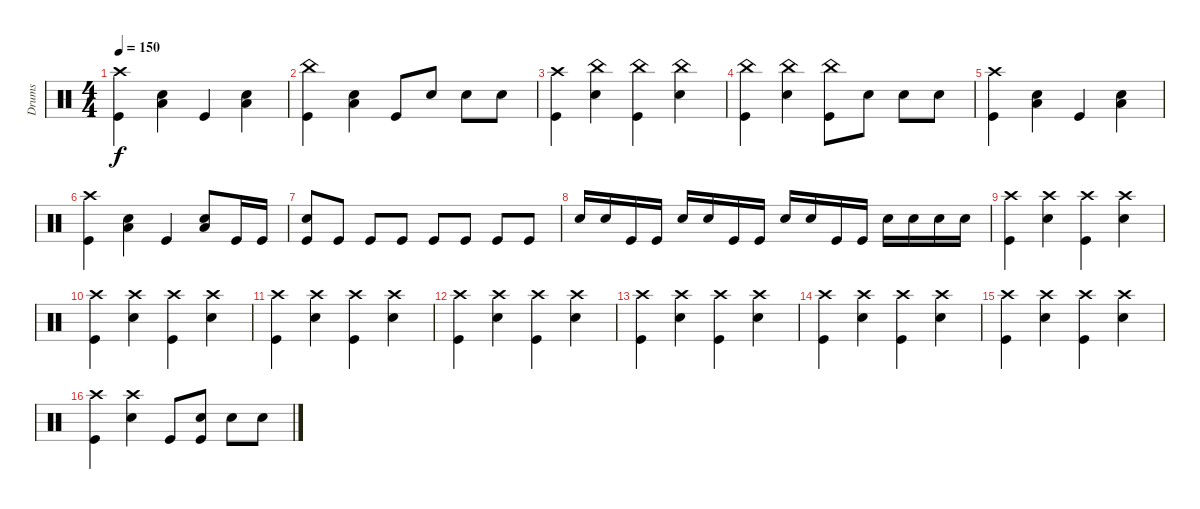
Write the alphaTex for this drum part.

\track ("Drums" "Drums") {instrument percussion}
\staff {score}
\articulation defaults
\ts (4 4)
\tempo 150
\clef neutral
\ks c
("Kick (hit)" "Crash high (hit)").4{dy f} ("Snare (hit) 2" "Low Floor Tom (hit)").4 "Kick (hit)".4 ("Snare (hit) 2" "Low Floor Tom (hit)").4 |
("Kick (hit)" "China (hit)").4 ("Snare (hit) 2" "Low Floor Tom (hit)").4 "Kick (hit)".8 "Snare (hit) 2".8 "Snare (hit) 2".8 "Snare (hit) 2".8 |
("Kick (hit)" "Crash high (hit)").4 ("Snare (hit) 2" "China (hit)").4 ("Kick (hit)" "China (hit)").4 ("Snare (hit) 2" "China (hit)").4 |
("Kick (hit)" "China (hit)").4 ("Snare (hit) 2" "China (hit)").4 ("Kick (hit)" "China (hit)").8 "Snare (hit) 2".8 "Snare (hit) 2".8 "Snare (hit) 2".8 |
("Kick (hit)" "Crash high (hit)").4 ("Snare (hit) 2" "Low Floor Tom (hit)").4 "Kick (hit)".4 ("Snare (hit) 2" "Low Floor Tom (hit)").4 |
("Kick (hit)" "Crash high (hit)").4 ("Snare (hit) 2" "Low Floor Tom (hit)").4 "Kick (hit)".4 ("Snare (hit) 2" "Low Floor Tom (hit)").8 "Kick (hit)".16 "Kick (hit)".16 |
("Snare (hit) 2" "Kick (hit)").8 "Kick (hit)".8 "Kick (hit)".8 "Kick (hit)".8 "Kick (hit)".8 "Kick (hit)".8 "Kick (hit)".8 "Kick (hit)".8 |
"Snare (hit) 2".16 "Snare (hit) 2".16 "Kick (hit)".16 "Kick (hit)".16 "Snare (hit) 2".16 "Snare (hit) 2".16 "Kick (hit)".16 "Kick (hit)".16 "Snare (hit) 2".16 "Snare (hit) 2".16 "Kick (hit)".16 "Kick (hit)".16 "Snare (hit) 2".16 "Snare (hit) 2".16 "Snare (hit) 2".16 "Snare (hit) 2".16 |
("Kick (hit)" "Crash high (hit)").4 ("Snare (hit) 2" "Crash high (hit)").4 ("Kick (hit)" "Crash high (hit)").4 ("Snare (hit) 2" "Crash high (hit)").4 |
("Kick (hit)" "Crash high (hit)").4 ("Snare (hit) 2" "Crash high (hit)").4 ("Kick (hit)" "Crash high (hit)").4 ("Snare (hit) 2" "Crash high (hit)").4 |
("Kick (hit)" "Crash high (hit)").4 ("Snare (hit) 2" "Crash high (hit)").4 ("Kick (hit)" "Crash high (hit)").4 ("Snare (hit) 2" "Crash high (hit)").4 |
("Kick (hit)" "Crash high (hit)").4 ("Snare (hit) 2" "Crash high (hit)").4 ("Kick (hit)" "Crash high (hit)").4 ("Snare (hit) 2" "Crash high (hit)").4 |
("Kick (hit)" "Crash high (hit)").4 ("Snare (hit) 2" "Crash high (hit)").4 ("Kick (hit)" "Crash high (hit)").4 ("Snare (hit) 2" "Crash high (hit)").4 |
("Kick (hit)" "Crash high (hit)").4 ("Snare (hit) 2" "Crash high (hit)").4 ("Kick (hit)" "Crash high (hit)").4 ("Snare (hit) 2" "Crash high (hit)").4 |
("Kick (hit)" "Crash high (hit)").4 ("Snare (hit) 2" "Crash high (hit)").4 ("Kick (hit)" "Crash high (hit)").4 ("Snare (hit) 2" "Crash high (hit)").4 |
("Kick (hit)" "Crash high (hit)").4 ("Snare (hit) 2" "Crash high (hit)").4 "Kick (hit)".8 ("Kick (hit)" "Snare (hit) 2").8 "Snare (hit) 2".8 "Snare (hit) 2".8
